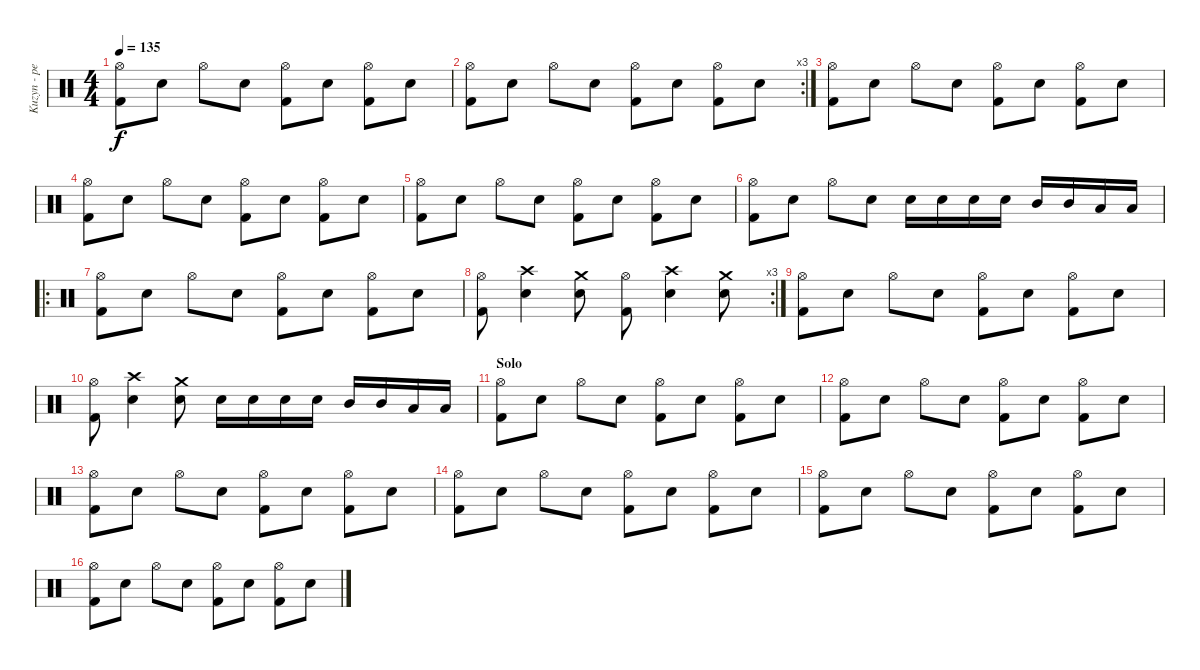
\track ("Kuzyn - perkusja" "Kuzyn - pe") {instrument percussion}
\staff {score}
\articulation defaults
\ts (4 4)
\tempo 135
\clef neutral
\ks c
("Hi-Hat (open)" "Kick (hit) 2").8{dy f} "Electric Snare (hit)".8 "Hi-Hat (open)".8 "Electric Snare (hit)".8 ("Hi-Hat (open)" "Kick (hit) 2").8 "Electric Snare (hit)".8 ("Hi-Hat (open)" "Kick (hit) 2").8 "Electric Snare (hit)".8 |
\rc 3
("Hi-Hat (open)" "Kick (hit) 2").8 "Electric Snare (hit)".8 "Hi-Hat (open)".8 "Electric Snare (hit)".8 ("Hi-Hat (open)" "Kick (hit) 2").8 "Electric Snare (hit)".8 ("Hi-Hat (open)" "Kick (hit) 2").8 "Electric Snare (hit)".8 |
("Hi-Hat (open)" "Kick (hit) 2").8 "Electric Snare (hit)".8 "Hi-Hat (open)".8 "Electric Snare (hit)".8 ("Hi-Hat (open)" "Kick (hit) 2").8 "Electric Snare (hit)".8 ("Hi-Hat (open)" "Kick (hit) 2").8 "Electric Snare (hit)".8 |
("Hi-Hat (open)" "Kick (hit) 2").8 "Electric Snare (hit)".8 "Hi-Hat (open)".8 "Electric Snare (hit)".8 ("Hi-Hat (open)" "Kick (hit) 2").8 "Electric Snare (hit)".8 ("Hi-Hat (open)" "Kick (hit) 2").8 "Electric Snare (hit)".8 |
("Hi-Hat (open)" "Kick (hit) 2").8 "Electric Snare (hit)".8 "Hi-Hat (open)".8 "Electric Snare (hit)".8 ("Hi-Hat (open)" "Kick (hit) 2").8 "Electric Snare (hit)".8 ("Hi-Hat (open)" "Kick (hit) 2").8 "Electric Snare (hit)".8 |
("Hi-Hat (open)" "Kick (hit) 2").8 "Electric Snare (hit)".8 "Hi-Hat (open)".8 "Electric Snare (hit)".8 "Electric Snare (hit)".16 "Electric Snare (hit)".16 "Electric Snare (hit)".16 "Electric Snare (hit)".16 "Mid Tom (hit)".16 "Mid Tom (hit)".16 "Low Tom (hit)".16 "Low Tom (hit)".16 |
\ro
("Hi-Hat (open)" "Kick (hit) 2").8 "Electric Snare (hit)".8 "Hi-Hat (open)".8 "Electric Snare (hit)".8 ("Hi-Hat (open)" "Kick (hit) 2").8 "Electric Snare (hit)".8 ("Hi-Hat (open)" "Kick (hit) 2").8 "Electric Snare (hit)".8 |
\rc 3
("Hi-Hat (open)" "Kick (hit) 2").8 ("Crash high (hit)" "Electric Snare (hit)").4 ("Crash medium (hit)" "Electric Snare (hit)").8 ("Hi-Hat (open)" "Kick (hit) 2").8 ("Crash high (hit)" "Electric Snare (hit)").4 ("Crash medium (hit)" "Electric Snare (hit)").8 |
("Hi-Hat (open)" "Kick (hit) 2").8 "Electric Snare (hit)".8 "Hi-Hat (open)".8 "Electric Snare (hit)".8 ("Hi-Hat (open)" "Kick (hit) 2").8 "Electric Snare (hit)".8 ("Hi-Hat (open)" "Kick (hit) 2").8 "Electric Snare (hit)".8 |
("Hi-Hat (open)" "Kick (hit) 2").8 ("Crash high (hit)" "Electric Snare (hit)").4 ("Crash medium (hit)" "Electric Snare (hit)").8 "Electric Snare (hit)".16 "Electric Snare (hit)".16 "Electric Snare (hit)".16 "Electric Snare (hit)".16 "Mid Tom (hit)".16 "Mid Tom (hit)".16 "Low Tom (hit)".16 "Low Tom (hit)".16 |
\section ("" "Solo")
("Hi-Hat (open)" "Kick (hit) 2").8 "Electric Snare (hit)".8 "Hi-Hat (open)".8 "Electric Snare (hit)".8 ("Hi-Hat (open)" "Kick (hit) 2").8 "Electric Snare (hit)".8 ("Hi-Hat (open)" "Kick (hit) 2").8 "Electric Snare (hit)".8 |
("Hi-Hat (open)" "Kick (hit) 2").8 "Electric Snare (hit)".8 "Hi-Hat (open)".8 "Electric Snare (hit)".8 ("Hi-Hat (open)" "Kick (hit) 2").8 "Electric Snare (hit)".8 ("Hi-Hat (open)" "Kick (hit) 2").8 "Electric Snare (hit)".8 |
("Hi-Hat (open)" "Kick (hit) 2").8 "Electric Snare (hit)".8 "Hi-Hat (open)".8 "Electric Snare (hit)".8 ("Hi-Hat (open)" "Kick (hit) 2").8 "Electric Snare (hit)".8 ("Hi-Hat (open)" "Kick (hit) 2").8 "Electric Snare (hit)".8 |
("Hi-Hat (open)" "Kick (hit) 2").8 "Electric Snare (hit)".8 "Hi-Hat (open)".8 "Electric Snare (hit)".8 ("Hi-Hat (open)" "Kick (hit) 2").8 "Electric Snare (hit)".8 ("Hi-Hat (open)" "Kick (hit) 2").8 "Electric Snare (hit)".8 |
("Hi-Hat (open)" "Kick (hit) 2").8 "Electric Snare (hit)".8 "Hi-Hat (open)".8 "Electric Snare (hit)".8 ("Hi-Hat (open)" "Kick (hit) 2").8 "Electric Snare (hit)".8 ("Hi-Hat (open)" "Kick (hit) 2").8 "Electric Snare (hit)".8 |
("Hi-Hat (open)" "Kick (hit) 2").8 "Electric Snare (hit)".8 "Hi-Hat (open)".8 "Electric Snare (hit)".8 ("Hi-Hat (open)" "Kick (hit) 2").8 "Electric Snare (hit)".8 ("Hi-Hat (open)" "Kick (hit) 2").8 "Electric Snare (hit)".8
